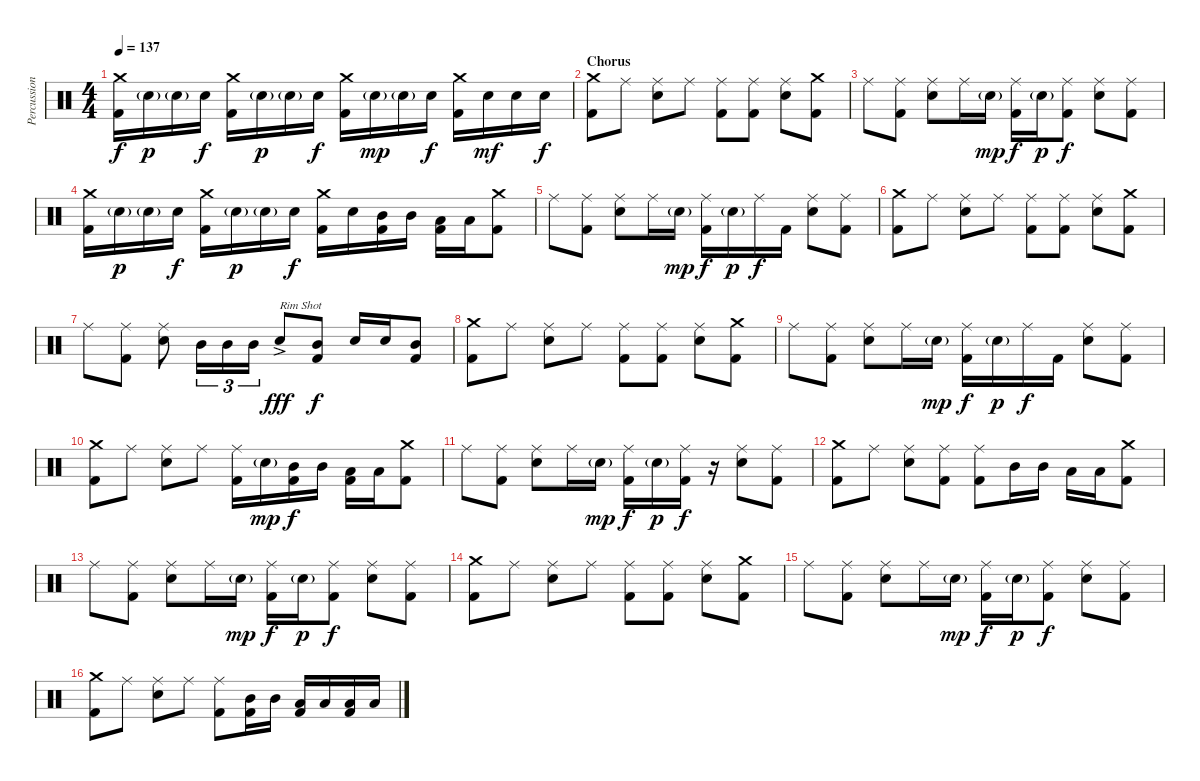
\track ("Percussion" "Percussion") {instrument percussion}
\staff {score}
\articulation defaults
\ts (4 4)
\tempo 137
\clef neutral
\ks c
("Crash medium (hit)" "Kick (hit) 2").16{dy f} "Electric Snare (hit)"{g}.16{dy p} "Electric Snare (hit)"{g}.16 "Electric Snare (hit)".16{dy f} ("Crash medium (hit)" "Kick (hit) 2").16 "Electric Snare (hit)"{g}.16{dy p} "Electric Snare (hit)"{g}.16 "Electric Snare (hit)".16{dy f} ("Crash medium (hit)" "Kick (hit) 2").16 "Electric Snare (hit)"{g}.16{dy mp} "Electric Snare (hit)"{g}.16 "Electric Snare (hit)".16{dy f} ("Crash medium (hit)" "Kick (hit) 2").16 "Electric Snare (hit)".16{dy mf} "Electric Snare (hit)".16 "Electric Snare (hit)".16{dy f} |
\section ("" "Chorus")
("Crash medium (hit)" "Kick (hit) 2").8 "Ride (middle)".8 ("Ride (middle)" "Electric Snare (hit)").8 "Ride (middle)".8 ("Ride (middle)" "Kick (hit) 2").8 ("Ride (middle)" "Kick (hit) 2").8 ("Ride (middle)" "Electric Snare (hit)").8 ("Crash medium (hit)" "Kick (hit) 2").8 |
"Ride (middle)".8 ("Ride (middle)" "Kick (hit) 2").8 ("Ride (middle)" "Electric Snare (hit)").8 "Ride (middle)".16 "Electric Snare (hit)"{g}.16{dy mp} ("Ride (middle)" "Kick (hit) 2").16{dy f} "Electric Snare (hit)"{g}.16{dy p} ("Ride (middle)" "Kick (hit) 2").8{dy f} ("Ride (middle)" "Electric Snare (hit)").8 ("Ride (middle)" "Kick (hit) 2").8 |
("Crash medium (hit)" "Kick (hit) 2").16 "Electric Snare (hit)"{g}.16{dy p} "Electric Snare (hit)"{g}.16 "Electric Snare (hit)".16{dy f} ("Crash medium (hit)" "Kick (hit) 2").16 "Electric Snare (hit)"{g}.16{dy p} "Electric Snare (hit)"{g}.16 "Electric Snare (hit)".16{dy f} ("Crash medium (hit)" "Kick (hit) 2").16 "Electric Snare (hit)".16 ("Mid Tom (hit)" "Kick (hit) 2").16 "Mid Tom (hit)".16 ("Low Tom (hit)" "Kick (hit) 2").16 "Low Tom (hit)".16 ("Crash medium (hit)" "Kick (hit) 2").8 |
"Ride (middle)".8 ("Ride (middle)" "Kick (hit) 2").8 ("Ride (middle)" "Electric Snare (hit)").8 "Ride (middle)".16 "Electric Snare (hit)"{g}.16{dy mp} ("Ride (middle)" "Kick (hit) 2").16{dy f} "Electric Snare (hit)"{g}.16{dy p} "Ride (middle)".16{dy f} "Kick (hit) 2".16 ("Ride (middle)" "Electric Snare (hit)").8 ("Ride (middle)" "Kick (hit) 2").8 |
("Crash medium (hit)" "Kick (hit) 2").8 "Ride (middle)".8 ("Ride (middle)" "Electric Snare (hit)").8 "Ride (middle)".8 ("Ride (middle)" "Kick (hit) 2").8 ("Ride (middle)" "Kick (hit) 2").8 ("Ride (middle)" "Electric Snare (hit)").8 ("Crash medium (hit)" "Kick (hit) 2").8 |
"Ride (middle)".8 ("Ride (middle)" "Kick (hit) 2").8 ("Ride (middle)" "Electric Snare (hit)").8 "Mid Tom (hit)".16{tu (3 2)} "Mid Tom (hit)".16{tu (3 2)} "Mid Tom (hit)".16{tu (3 2)} "Electric Snare (hit)"{ac}.8{txt "Rim Shot" dy fff} ("Mid Tom (hit)" "Kick (hit) 2").8{dy f} "Electric Snare (hit)".16 "Electric Snare (hit)".16 ("Mid Tom (hit)" "Kick (hit) 2").8 |
("Crash medium (hit)" "Kick (hit) 2").8 "Ride (middle)".8 ("Ride (middle)" "Electric Snare (hit)").8 "Ride (middle)".8 ("Ride (middle)" "Kick (hit) 2").8 ("Ride (middle)" "Kick (hit) 2").8 ("Ride (middle)" "Electric Snare (hit)").8 ("Crash medium (hit)" "Kick (hit) 2").8 |
"Ride (middle)".8 ("Ride (middle)" "Kick (hit) 2").8 ("Ride (middle)" "Electric Snare (hit)").8 "Ride (middle)".16 "Electric Snare (hit)"{g}.16{dy mp} ("Ride (middle)" "Kick (hit) 2").16{dy f} "Electric Snare (hit)"{g}.16{dy p} "Ride (middle)".16{dy f} "Kick (hit) 2".16 ("Ride (middle)" "Electric Snare (hit)").8 ("Ride (middle)" "Kick (hit) 2").8 |
("Crash medium (hit)" "Kick (hit) 2").8 "Ride (middle)".8 ("Ride (middle)" "Electric Snare (hit)").8 "Ride (middle)".8 ("Ride (middle)" "Kick (hit) 2").16 "Electric Snare (hit)"{g}.16{dy mp} ("Mid Tom (hit)" "Kick (hit) 2").16{dy f} "Mid Tom (hit)".16 ("Low Tom (hit)" "Kick (hit) 2").16 "Low Tom (hit)".16 ("Crash medium (hit)" "Kick (hit) 2").8 |
"Ride (middle)".8 ("Ride (middle)" "Kick (hit) 2").8 ("Ride (middle)" "Electric Snare (hit)").8 "Ride (middle)".16 "Electric Snare (hit)"{g}.16{dy mp} ("Ride (middle)" "Kick (hit) 2").16{dy f} "Electric Snare (hit)"{g}.16{dy p} ("Ride (middle)" "Kick (hit) 2").16{dy f} r.16 ("Ride (middle)" "Electric Snare (hit)").8 ("Ride (middle)" "Kick (hit) 2").8 |
("Crash medium (hit)" "Kick (hit) 2").8 "Ride (middle)".8 ("Ride (middle)" "Electric Snare (hit)").8 ("Ride (middle)" "Kick (hit) 2").8 ("Ride (middle)" "Kick (hit) 2").8 "Mid Tom (hit)".16 "Mid Tom (hit)".16 "Low Tom (hit)".16 "Low Tom (hit)".16 ("Crash medium (hit)" "Kick (hit) 2").8 |
"Ride (middle)".8 ("Ride (middle)" "Kick (hit) 2").8 ("Ride (middle)" "Electric Snare (hit)").8 "Ride (middle)".16 "Electric Snare (hit)"{g}.16{dy mp} ("Ride (middle)" "Kick (hit) 2").16{dy f} "Electric Snare (hit)"{g}.16{dy p} ("Ride (middle)" "Kick (hit) 2").8{dy f} ("Ride (middle)" "Electric Snare (hit)").8 ("Ride (middle)" "Kick (hit) 2").8 |
("Crash medium (hit)" "Kick (hit) 2").8 "Ride (middle)".8 ("Ride (middle)" "Electric Snare (hit)").8 "Ride (middle)".8 ("Ride (middle)" "Kick (hit) 2").8 ("Ride (middle)" "Kick (hit) 2").8 ("Ride (middle)" "Electric Snare (hit)").8 ("Crash medium (hit)" "Kick (hit) 2").8 |
"Ride (middle)".8 ("Ride (middle)" "Kick (hit) 2").8 ("Ride (middle)" "Electric Snare (hit)").8 "Ride (middle)".16 "Electric Snare (hit)"{g}.16{dy mp} ("Ride (middle)" "Kick (hit) 2").16{dy f} "Electric Snare (hit)"{g}.16{dy p} ("Ride (middle)" "Kick (hit) 2").8{dy f} ("Ride (middle)" "Electric Snare (hit)").8 ("Ride (middle)" "Kick (hit) 2").8 |
("Crash medium (hit)" "Kick (hit) 2").8 "Ride (middle)".8 ("Ride (middle)" "Electric Snare (hit)").8 "Ride (middle)".8 ("Ride (middle)" "Kick (hit) 2").8 ("Mid Tom (hit)" "Kick (hit) 2").16 "Mid Tom (hit)".16 ("Low Tom (hit)" "Kick (hit) 2").16 "Low Tom (hit)".16 ("Low Floor Tom (hit)" "Kick (hit) 2").16 "Low Floor Tom (hit)".16
